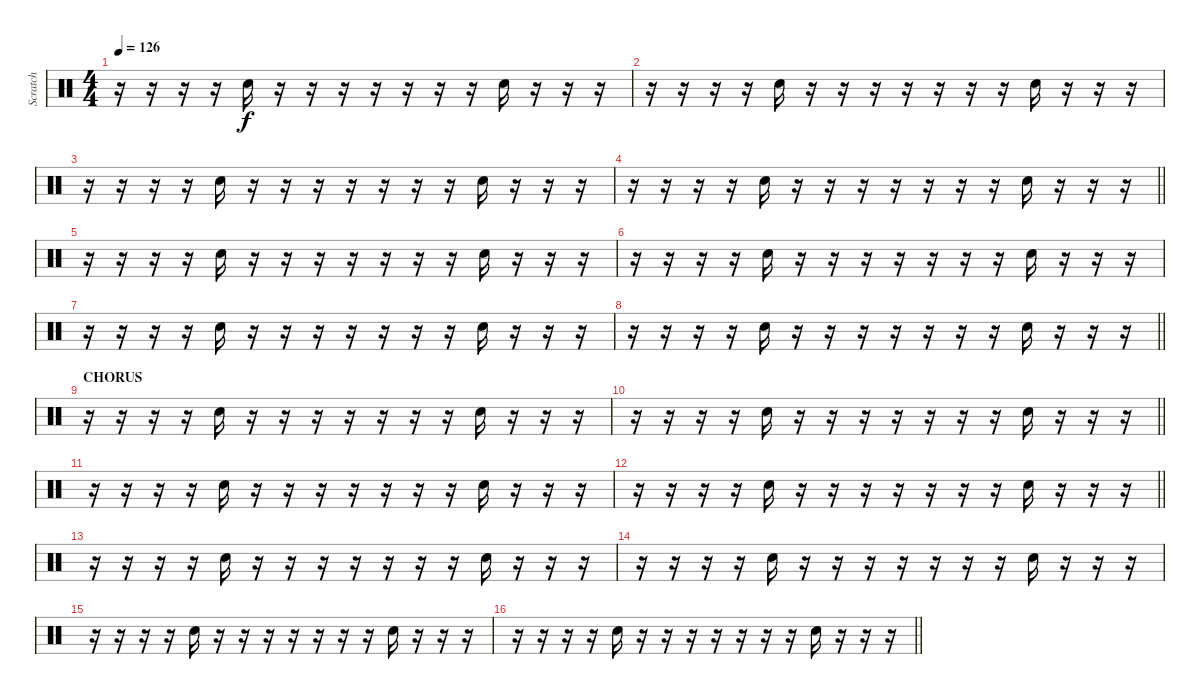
\track ("Scratch" "Scratch") {instrument percussion}
\staff {score}
\articulation defaults
\ts (4 4)
\tempo 126
\clef neutral
\ks c
r.16{dy f} r.16 r.16 r.16 "Hand Clap (hit)".16 r.16 r.16 r.16 r.16 r.16 r.16 r.16 "Hand Clap (hit)".16 r.16 r.16 r.16 |
r.16 r.16 r.16 r.16 "Hand Clap (hit)".16 r.16 r.16 r.16 r.16 r.16 r.16 r.16 "Hand Clap (hit)".16 r.16 r.16 r.16 |
r.16 r.16 r.16 r.16 "Hand Clap (hit)".16 r.16 r.16 r.16 r.16 r.16 r.16 r.16 "Hand Clap (hit)".16 r.16 r.16 r.16 |
\barLineRight lightlight
r.16 r.16 r.16 r.16 "Hand Clap (hit)".16 r.16 r.16 r.16 r.16 r.16 r.16 r.16 "Hand Clap (hit)".16 r.16 r.16 r.16 |
r.16 r.16 r.16 r.16 "Hand Clap (hit)".16 r.16 r.16 r.16 r.16 r.16 r.16 r.16 "Hand Clap (hit)".16 r.16 r.16 r.16 |
r.16 r.16 r.16 r.16 "Hand Clap (hit)".16 r.16 r.16 r.16 r.16 r.16 r.16 r.16 "Hand Clap (hit)".16 r.16 r.16 r.16 |
r.16 r.16 r.16 r.16 "Hand Clap (hit)".16 r.16 r.16 r.16 r.16 r.16 r.16 r.16 "Hand Clap (hit)".16 r.16 r.16 r.16 |
\barLineRight lightlight
r.16 r.16 r.16 r.16 "Hand Clap (hit)".16 r.16 r.16 r.16 r.16 r.16 r.16 r.16 "Hand Clap (hit)".16 r.16 r.16 r.16 |
\section ("" "CHORUS")
r.16 r.16 r.16 r.16 "Hand Clap (hit)".16 r.16 r.16 r.16 r.16 r.16 r.16 r.16 "Hand Clap (hit)".16 r.16 r.16 r.16 |
\barLineRight lightlight
r.16 r.16 r.16 r.16 "Hand Clap (hit)".16 r.16 r.16 r.16 r.16 r.16 r.16 r.16 "Hand Clap (hit)".16 r.16 r.16 r.16 |
r.16 r.16 r.16 r.16 "Hand Clap (hit)".16 r.16 r.16 r.16 r.16 r.16 r.16 r.16 "Hand Clap (hit)".16 r.16 r.16 r.16 |
\barLineRight lightlight
r.16 r.16 r.16 r.16 "Hand Clap (hit)".16 r.16 r.16 r.16 r.16 r.16 r.16 r.16 "Hand Clap (hit)".16 r.16 r.16 r.16 |
r.16 r.16 r.16 r.16 "Hand Clap (hit)".16 r.16 r.16 r.16 r.16 r.16 r.16 r.16 "Hand Clap (hit)".16 r.16 r.16 r.16 |
r.16 r.16 r.16 r.16 "Hand Clap (hit)".16 r.16 r.16 r.16 r.16 r.16 r.16 r.16 "Hand Clap (hit)".16 r.16 r.16 r.16 |
r.16 r.16 r.16 r.16 "Hand Clap (hit)".16 r.16 r.16 r.16 r.16 r.16 r.16 r.16 "Hand Clap (hit)".16 r.16 r.16 r.16 |
\barLineRight lightlight
r.16 r.16 r.16 r.16 "Hand Clap (hit)".16 r.16 r.16 r.16 r.16 r.16 r.16 r.16 "Hand Clap (hit)".16 r.16 r.16 r.16
